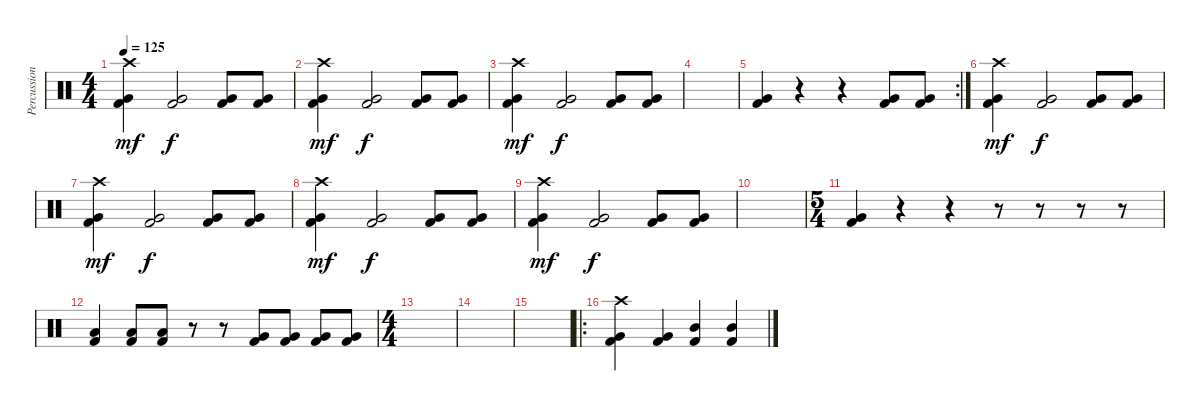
\track ("Percussion" "Percussion") {instrument percussion}
\staff {score}
\articulation defaults
\ts (4 4)
\tempo 125
\clef neutral
\ks c
("Crash high (hit)" "Very Low Tom (hit)" "Kick (hit) 2").4{dy mf} ("Very Low Tom (hit)" "Kick (hit) 2").2{dy f} ("Very Low Tom (hit)" "Kick (hit) 2").8 ("Very Low Tom (hit)" "Kick (hit) 2").8 |
("Crash high (hit)" "Very Low Tom (hit)" "Kick (hit) 2").4{dy mf} ("Very Low Tom (hit)" "Kick (hit) 2").2{dy f} ("Very Low Tom (hit)" "Kick (hit) 2").8 ("Very Low Tom (hit)" "Kick (hit) 2").8 |
("Crash high (hit)" "Very Low Tom (hit)" "Kick (hit) 2").4{dy mf} ("Very Low Tom (hit)" "Kick (hit) 2").2{dy f} ("Very Low Tom (hit)" "Kick (hit) 2").8 ("Very Low Tom (hit)" "Kick (hit) 2").8 |
|
\rc 2
("Very Low Tom (hit)" "Kick (hit) 2").4 r.4 r.4 ("Very Low Tom (hit)" "Kick (hit) 2").8 ("Very Low Tom (hit)" "Kick (hit) 2").8 |
("Crash high (hit)" "Very Low Tom (hit)" "Kick (hit) 2").4{dy mf} ("Very Low Tom (hit)" "Kick (hit) 2").2{dy f} ("Very Low Tom (hit)" "Kick (hit) 2").8 ("Very Low Tom (hit)" "Kick (hit) 2").8 |
("Crash high (hit)" "Very Low Tom (hit)" "Kick (hit) 2").4{dy mf} ("Very Low Tom (hit)" "Kick (hit) 2").2{dy f} ("Very Low Tom (hit)" "Kick (hit) 2").8 ("Very Low Tom (hit)" "Kick (hit) 2").8 |
("Crash high (hit)" "Very Low Tom (hit)" "Kick (hit) 2").4{dy mf} ("Very Low Tom (hit)" "Kick (hit) 2").2{dy f} ("Very Low Tom (hit)" "Kick (hit) 2").8 ("Very Low Tom (hit)" "Kick (hit) 2").8 |
("Crash high (hit)" "Very Low Tom (hit)" "Kick (hit) 2").4{dy mf} ("Very Low Tom (hit)" "Kick (hit) 2").2{dy f} ("Very Low Tom (hit)" "Kick (hit) 2").8 ("Very Low Tom (hit)" "Kick (hit) 2").8 |
|
\ts (5 4)
("Very Low Tom (hit)" "Kick (hit) 2").4 r.4 r.4 r.8 r.8 r.8 r.8 |
("Low Floor Tom (hit)" "Kick (hit) 2").4 ("Low Floor Tom (hit)" "Kick (hit) 2").8 ("Low Floor Tom (hit)" "Kick (hit) 2").8 r.8 r.8 ("Very Low Tom (hit)" "Kick (hit) 2").8 ("Very Low Tom (hit)" "Kick (hit) 2").8 ("Very Low Tom (hit)" "Kick (hit) 2").8 ("Very Low Tom (hit)" "Kick (hit) 2").8 |
\ts (4 4)
|
|
|
\ro
("Crash high (hit)" "Very Low Tom (hit)" "Kick (hit) 2").4 ("Very Low Tom (hit)" "Kick (hit) 2").4 ("Mid Tom (hit)" "Kick (hit) 2").4 ("Mid Tom (hit)" "Kick (hit) 2").4
